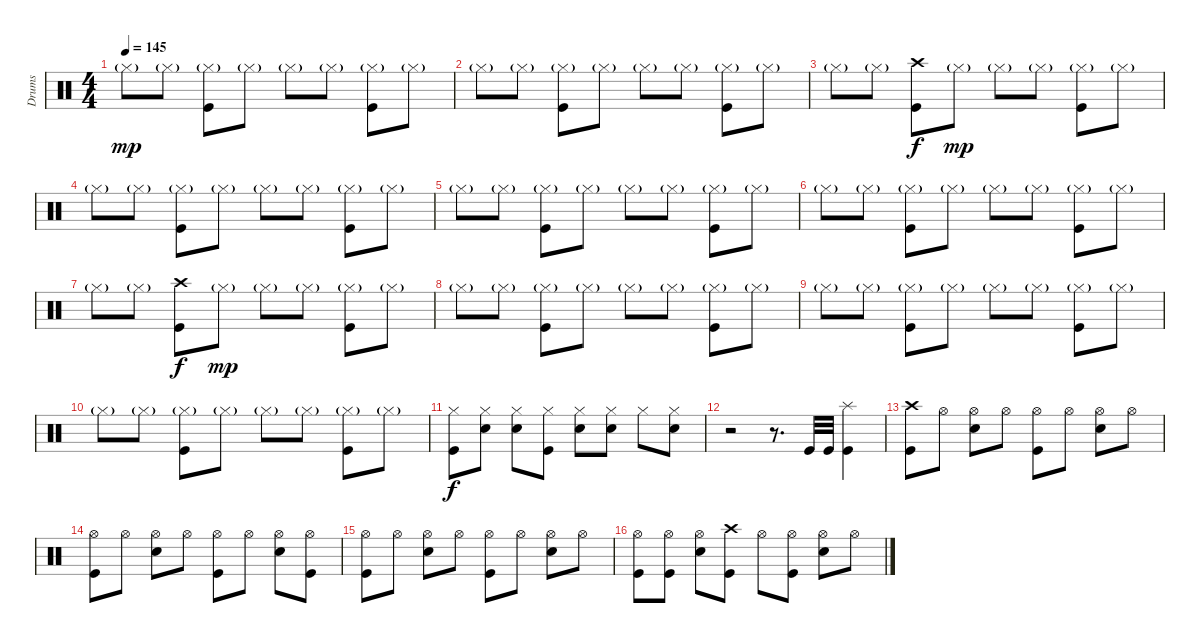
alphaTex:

\track ("Drums" "Drums") {instrument percussion}
\staff {score}
\articulation defaults
\ts (4 4)
\tempo 145
\clef neutral
\ks c "Hi-Hat (closed)"{g}.8{dy mp} "Hi-Hat (closed)"{g}.8
("Hi-Hat (closed)"{g} "Kick (hit)").8 "Hi-Hat (closed)"{g}.8 "Hi-Hat (closed)"{g}.8 "Hi-Hat (closed)"{g}.8 ("Hi-Hat (closed)"{g} "Kick (hit)").8 "Hi-Hat (closed)"{g}.8 |
"Hi-Hat (closed)"{g}.8 "Hi-Hat (closed)"{g}.8 ("Hi-Hat (closed)"{g} "Kick (hit)").8 "Hi-Hat (closed)"{g}.8 "Hi-Hat (closed)"{g}.8 "Hi-Hat (closed)"{g}.8 ("Hi-Hat (closed)"{g} "Kick (hit)").8 "Hi-Hat (closed)"{g}.8 |
"Hi-Hat (closed)"{g}.8 "Hi-Hat (closed)"{g}.8 ("Crash high (hit)" "Kick (hit)").8{dy f} "Hi-Hat (closed)"{g}.8{dy mp} "Hi-Hat (closed)"{g}.8 "Hi-Hat (closed)"{g}.8 ("Hi-Hat (closed)"{g} "Kick (hit)").8 "Hi-Hat (closed)"{g}.8 |
"Hi-Hat (closed)"{g}.8 "Hi-Hat (closed)"{g}.8 ("Hi-Hat (closed)"{g} "Kick (hit)").8 "Hi-Hat (closed)"{g}.8 "Hi-Hat (closed)"{g}.8 "Hi-Hat (closed)"{g}.8 ("Hi-Hat (closed)"{g} "Kick (hit)").8 "Hi-Hat (closed)"{g}.8 |
"Hi-Hat (closed)"{g}.8 "Hi-Hat (closed)"{g}.8 ("Hi-Hat (closed)"{g} "Kick (hit)").8 "Hi-Hat (closed)"{g}.8 "Hi-Hat (closed)"{g}.8 "Hi-Hat (closed)"{g}.8 ("Hi-Hat (closed)"{g} "Kick (hit)").8 "Hi-Hat (closed)"{g}.8 |
"Hi-Hat (closed)"{g}.8 "Hi-Hat (closed)"{g}.8 ("Hi-Hat (closed)"{g} "Kick (hit)").8 "Hi-Hat (closed)"{g}.8 "Hi-Hat (closed)"{g}.8 "Hi-Hat (closed)"{g}.8 ("Hi-Hat (closed)"{g} "Kick (hit)").8 "Hi-Hat (closed)"{g}.8 |
"Hi-Hat (closed)"{g}.8 "Hi-Hat (closed)"{g}.8 ("Crash high (hit)" "Kick (hit)").8{dy f} "Hi-Hat (closed)"{g}.8{dy mp} "Hi-Hat (closed)"{g}.8 "Hi-Hat (closed)"{g}.8 ("Hi-Hat (closed)"{g} "Kick (hit)").8 "Hi-Hat (closed)"{g}.8 |
"Hi-Hat (closed)"{g}.8 "Hi-Hat (closed)"{g}.8 ("Hi-Hat (closed)"{g} "Kick (hit)").8 "Hi-Hat (closed)"{g}.8 "Hi-Hat (closed)"{g}.8 "Hi-Hat (closed)"{g}.8 ("Hi-Hat (closed)"{g} "Kick (hit)").8 "Hi-Hat (closed)"{g}.8 |
"Hi-Hat (closed)"{g}.8 "Hi-Hat (closed)"{g}.8 ("Hi-Hat (closed)"{g} "Kick (hit)").8 "Hi-Hat (closed)"{g}.8 "Hi-Hat (closed)"{g}.8 "Hi-Hat (closed)"{g}.8 ("Hi-Hat (closed)"{g} "Kick (hit)").8 "Hi-Hat (closed)"{g}.8 |
"Hi-Hat (closed)"{g}.8 "Hi-Hat (closed)"{g}.8 ("Hi-Hat (closed)"{g} "Kick (hit)").8 "Hi-Hat (closed)"{g}.8 "Hi-Hat (closed)"{g}.8 "Hi-Hat (closed)"{g}.8 ("Hi-Hat (closed)"{g} "Kick (hit)").8 "Hi-Hat (closed)"{g}.8 |
("Hi-Hat (closed)" "Kick (hit)").8{dy f} ("Hi-Hat (closed)" "Snare (hit) 2").8 ("Hi-Hat (closed)" "Snare (hit) 2").8 ("Hi-Hat (closed)" "Kick (hit)").8 ("Hi-Hat (closed)" "Snare (hit) 2").8 ("Hi-Hat (closed)" "Snare (hit) 2").8 "Hi-Hat (closed)".8 ("Hi-Hat (closed)" "Snare (hit) 2").8 |
r.2 r.8{d} "Kick (hit)".32 "Kick (hit)".32 ("Splash (hit)" "Kick (hit)").4 |
("Crash high (hit)" "Kick (hit)").8 "Hi-Hat (open)".8 ("Hi-Hat (open)" "Snare (hit) 2").8 "Hi-Hat (open)".8 ("Hi-Hat (open)" "Kick (hit)").8 "Hi-Hat (open)".8 ("Hi-Hat (open)" "Snare (hit) 2").8 "Hi-Hat (open)".8 |
("Hi-Hat (open)" "Kick (hit)").8 "Hi-Hat (open)".8 ("Hi-Hat (open)" "Snare (hit) 2").8 "Hi-Hat (open)".8 ("Hi-Hat (open)" "Kick (hit)").8 "Hi-Hat (open)".8 ("Hi-Hat (open)" "Snare (hit) 2").8 ("Hi-Hat (open)" "Kick (hit)").8 |
("Hi-Hat (open)" "Kick (hit)").8 "Hi-Hat (open)".8 ("Hi-Hat (open)" "Snare (hit) 2").8 "Hi-Hat (open)".8 ("Hi-Hat (open)" "Kick (hit)").8 "Hi-Hat (open)".8 ("Hi-Hat (open)" "Snare (hit) 2").8 "Hi-Hat (open)".8 |
("Hi-Hat (open)" "Kick (hit)").8 ("Hi-Hat (open)" "Kick (hit)").8 ("Hi-Hat (open)" "Snare (hit) 2").8 ("Crash high (hit)" "Kick (hit)").8 "Hi-Hat (open)".8 ("Hi-Hat (open)" "Kick (hit)").8 ("Hi-Hat (open)" "Snare (hit) 2").8 "Hi-Hat (open)".8
